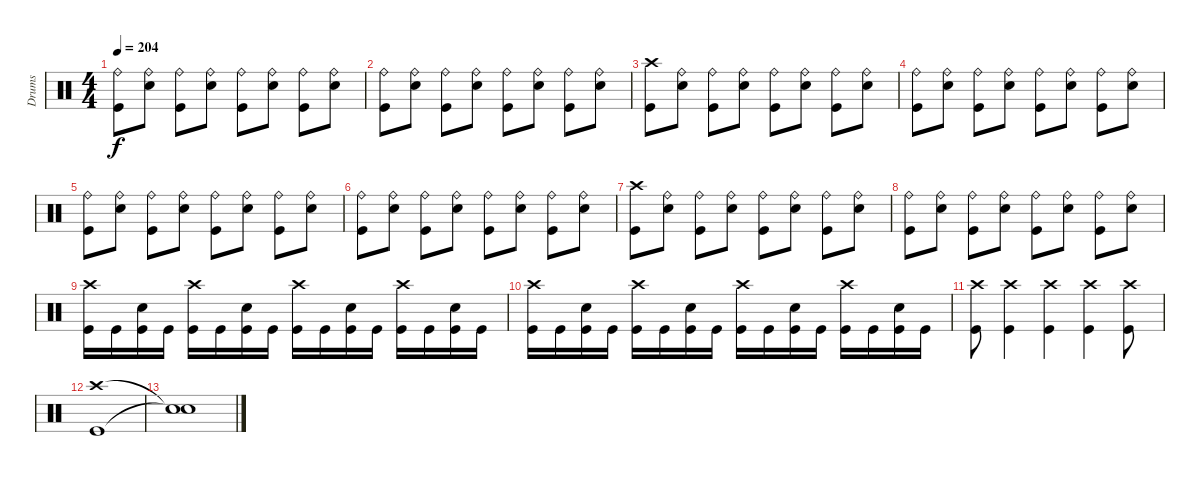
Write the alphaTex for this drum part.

\track ("Drums" "Drums") {instrument percussion}
\staff {score}
\articulation defaults
\ts (4 4)
\tempo 204
\clef neutral
\ks c
("Ride (bell)" "Kick (hit)").8{dy f} ("Ride (bell)" "Electric Snare (hit)").8 ("Ride (bell)" "Kick (hit)").8 ("Ride (bell)" "Electric Snare (hit)").8 ("Ride (bell)" "Kick (hit)").8 ("Ride (bell)" "Electric Snare (hit)").8 ("Ride (bell)" "Kick (hit)").8 ("Ride (bell)" "Electric Snare (hit)").8 |
("Ride (bell)" "Kick (hit)").8 ("Ride (bell)" "Electric Snare (hit)").8 ("Ride (bell)" "Kick (hit)").8 ("Ride (bell)" "Electric Snare (hit)").8 ("Ride (bell)" "Kick (hit)").8 ("Ride (bell)" "Electric Snare (hit)").8 ("Ride (bell)" "Kick (hit)").8 ("Ride (bell)" "Electric Snare (hit)").8 |
("Crash high (hit)" "Kick (hit)").8 ("Ride (bell)" "Electric Snare (hit)").8 ("Ride (bell)" "Kick (hit)").8 ("Ride (bell)" "Electric Snare (hit)").8 ("Ride (bell)" "Kick (hit)").8 ("Ride (bell)" "Electric Snare (hit)").8 ("Ride (bell)" "Kick (hit)").8 ("Ride (bell)" "Electric Snare (hit)").8 |
("Ride (bell)" "Kick (hit)").8 ("Ride (bell)" "Electric Snare (hit)").8 ("Ride (bell)" "Kick (hit)").8 ("Ride (bell)" "Electric Snare (hit)").8 ("Ride (bell)" "Kick (hit)").8 ("Ride (bell)" "Electric Snare (hit)").8 ("Ride (bell)" "Kick (hit)").8 ("Ride (bell)" "Electric Snare (hit)").8 |
("Ride (bell)" "Kick (hit)").8 ("Ride (bell)" "Electric Snare (hit)").8 ("Ride (bell)" "Kick (hit)").8 ("Ride (bell)" "Electric Snare (hit)").8 ("Ride (bell)" "Kick (hit)").8 ("Ride (bell)" "Electric Snare (hit)").8 ("Ride (bell)" "Kick (hit)").8 ("Ride (bell)" "Electric Snare (hit)").8 |
("Ride (bell)" "Kick (hit)").8 ("Ride (bell)" "Electric Snare (hit)").8 ("Ride (bell)" "Kick (hit)").8 ("Ride (bell)" "Electric Snare (hit)").8 ("Ride (bell)" "Kick (hit)").8 ("Ride (bell)" "Electric Snare (hit)").8 ("Ride (bell)" "Kick (hit)").8 ("Ride (bell)" "Electric Snare (hit)").8 |
("Crash high (hit)" "Kick (hit)").8 ("Ride (bell)" "Electric Snare (hit)").8 ("Ride (bell)" "Kick (hit)").8 ("Ride (bell)" "Electric Snare (hit)").8 ("Ride (bell)" "Kick (hit)").8 ("Ride (bell)" "Electric Snare (hit)").8 ("Ride (bell)" "Kick (hit)").8 ("Ride (bell)" "Electric Snare (hit)").8 |
("Ride (bell)" "Kick (hit)").8 ("Ride (bell)" "Electric Snare (hit)").8 ("Ride (bell)" "Kick (hit)").8 ("Ride (bell)" "Electric Snare (hit)").8 ("Ride (bell)" "Kick (hit)").8 ("Ride (bell)" "Electric Snare (hit)").8 ("Ride (bell)" "Kick (hit)").8 ("Ride (bell)" "Electric Snare (hit)").8 |
("Crash high (hit)" "Kick (hit)").16 "Kick (hit)".16 ("Electric Snare (hit)" "Kick (hit)").16 "Kick (hit)".16 ("Crash high (hit)" "Kick (hit)").16 "Kick (hit)".16 ("Electric Snare (hit)" "Kick (hit)").16 "Kick (hit)".16 ("Crash high (hit)" "Kick (hit)").16 "Kick (hit)".16 ("Electric Snare (hit)" "Kick (hit)").16 "Kick (hit)".16 ("Crash high (hit)" "Kick (hit)").16 "Kick (hit)".16 ("Electric Snare (hit)" "Kick (hit)").16 "Kick (hit)".16 |
("Crash high (hit)" "Kick (hit)").16 "Kick (hit)".16 ("Electric Snare (hit)" "Kick (hit)").16 "Kick (hit)".16 ("Crash high (hit)" "Kick (hit)").16 "Kick (hit)".16 ("Electric Snare (hit)" "Kick (hit)").16 "Kick (hit)".16 ("Crash high (hit)" "Kick (hit)").16 "Kick (hit)".16 ("Electric Snare (hit)" "Kick (hit)").16 "Kick (hit)".16 ("Crash high (hit)" "Kick (hit)").16 "Kick (hit)".16 ("Electric Snare (hit)" "Kick (hit)").16 "Kick (hit)".16 |
("Crash high (hit)" "Kick (hit)").8 ("Crash high (hit)" "Kick (hit)").4 ("Crash high (hit)" "Kick (hit)").4 ("Crash high (hit)" "Kick (hit)").4 ("Crash high (hit)" "Kick (hit)").8 |
("Crash high (hit)" "Kick (hit)").1 |
("Snare (hit)"{t} "Snare (hit)"{t}).1
